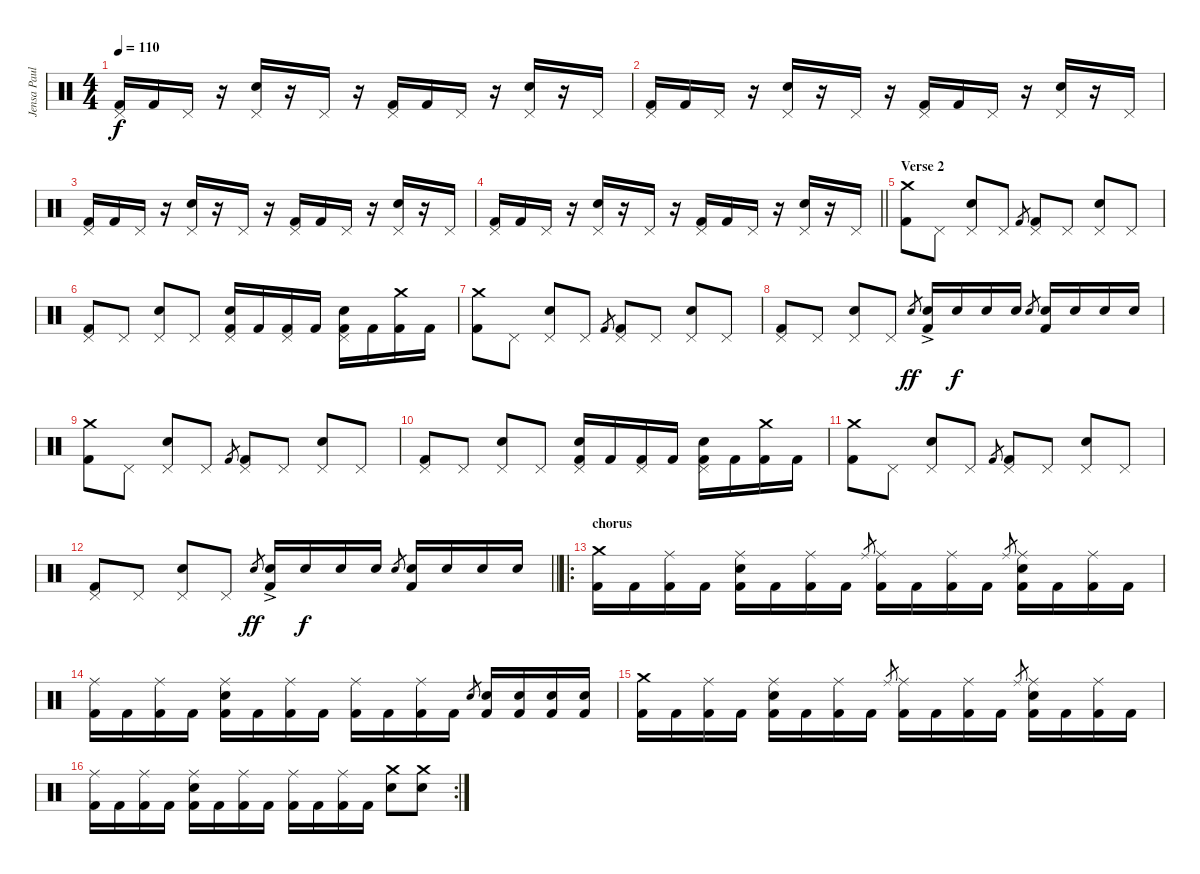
\track ("Jensa Paulsson (Drums)" "Jensa Paul") {instrument percussion}
\staff {score}
\articulation defaults
\ts (4 4)
\tempo 110
\clef neutral
\ks c
("Pedal Hi-Hat (hit)" "Kick (hit) 2").16{dy f} "Kick (hit) 2".16 "Pedal Hi-Hat (hit)".16 r.16 ("Pedal Hi-Hat (hit)" "Electric Snare (hit)").16 r.16 "Pedal Hi-Hat (hit)".16 r.16 ("Pedal Hi-Hat (hit)" "Kick (hit) 2").16 "Kick (hit) 2".16 "Pedal Hi-Hat (hit)".16 r.16 ("Pedal Hi-Hat (hit)" "Electric Snare (hit)").16 r.16 "Pedal Hi-Hat (hit)".16 |
("Pedal Hi-Hat (hit)" "Kick (hit) 2").16 "Kick (hit) 2".16 "Pedal Hi-Hat (hit)".16 r.16 ("Pedal Hi-Hat (hit)" "Electric Snare (hit)").16 r.16 "Pedal Hi-Hat (hit)".16 r.16 ("Pedal Hi-Hat (hit)" "Kick (hit) 2").16 "Kick (hit) 2".16 "Pedal Hi-Hat (hit)".16 r.16 ("Pedal Hi-Hat (hit)" "Electric Snare (hit)").16 r.16 "Pedal Hi-Hat (hit)".16 |
("Pedal Hi-Hat (hit)" "Kick (hit) 2").16 "Kick (hit) 2".16 "Pedal Hi-Hat (hit)".16 r.16 ("Pedal Hi-Hat (hit)" "Electric Snare (hit)").16 r.16 "Pedal Hi-Hat (hit)".16 r.16 ("Pedal Hi-Hat (hit)" "Kick (hit) 2").16 "Kick (hit) 2".16 "Pedal Hi-Hat (hit)".16 r.16 ("Pedal Hi-Hat (hit)" "Electric Snare (hit)").16 r.16 "Pedal Hi-Hat (hit)".16 |
\barLineRight lightlight
("Pedal Hi-Hat (hit)" "Kick (hit) 2").16 "Kick (hit) 2".16 "Pedal Hi-Hat (hit)".16 r.16 ("Pedal Hi-Hat (hit)" "Electric Snare (hit)").16 r.16 "Pedal Hi-Hat (hit)".16 r.16 ("Pedal Hi-Hat (hit)" "Kick (hit) 2").16 "Kick (hit) 2".16 "Pedal Hi-Hat (hit)".16 r.16 ("Pedal Hi-Hat (hit)" "Electric Snare (hit)").16 r.16 "Pedal Hi-Hat (hit)".16 |
\section ("" "Verse 2")
("Crash medium (hit)" "Kick (hit) 2").8 "Pedal Hi-Hat (hit)".8 ("Pedal Hi-Hat (hit)" "Electric Snare (hit)").8 "Pedal Hi-Hat (hit)".8 "Kick (hit) 2".8{gr} ("Pedal Hi-Hat (hit)" "Kick (hit) 2").8 "Pedal Hi-Hat (hit)".8 ("Pedal Hi-Hat (hit)" "Electric Snare (hit)").8 "Pedal Hi-Hat (hit)".8 |
("Pedal Hi-Hat (hit)" "Kick (hit) 2").8 "Pedal Hi-Hat (hit)".8 ("Pedal Hi-Hat (hit)" "Electric Snare (hit)").8 "Pedal Hi-Hat (hit)".8 ("Pedal Hi-Hat (hit)" "Electric Snare (hit)" "Kick (hit) 2").16 "Kick (hit) 2".16 ("Pedal Hi-Hat (hit)" "Kick (hit) 2").16 "Kick (hit) 2".16 ("Pedal Hi-Hat (hit)" "Electric Snare (hit)" "Kick (hit) 2").16 "Kick (hit) 2".16 ("Crash medium (hit)" "Kick (hit) 2").16 "Kick (hit) 2".16 |
("Crash medium (hit)" "Kick (hit) 2").8 "Pedal Hi-Hat (hit)".8 ("Pedal Hi-Hat (hit)" "Electric Snare (hit)").8 "Pedal Hi-Hat (hit)".8 "Kick (hit) 2".8{gr} ("Pedal Hi-Hat (hit)" "Kick (hit) 2").8 "Pedal Hi-Hat (hit)".8 ("Pedal Hi-Hat (hit)" "Electric Snare (hit)").8 "Pedal Hi-Hat (hit)".8 |
("Pedal Hi-Hat (hit)" "Kick (hit) 2").8 "Pedal Hi-Hat (hit)".8 ("Pedal Hi-Hat (hit)" "Electric Snare (hit)").8 "Pedal Hi-Hat (hit)".8 "Electric Snare (hit)".8{gr dy ff} ("Electric Snare (hit)"{ac} "Kick (hit) 2").16 "Electric Snare (hit)".16{dy f} "Electric Snare (hit)".16 "Electric Snare (hit)".16 "Electric Snare (hit)".8{gr} ("Electric Snare (hit)" "Kick (hit) 2").16 "Electric Snare (hit)".16 "Electric Snare (hit)".16 "Electric Snare (hit)".16 |
("Crash medium (hit)" "Kick (hit) 2").8 "Pedal Hi-Hat (hit)".8 ("Pedal Hi-Hat (hit)" "Electric Snare (hit)").8 "Pedal Hi-Hat (hit)".8 "Kick (hit) 2".8{gr} ("Pedal Hi-Hat (hit)" "Kick (hit) 2").8 "Pedal Hi-Hat (hit)".8 ("Pedal Hi-Hat (hit)" "Electric Snare (hit)").8 "Pedal Hi-Hat (hit)".8 |
("Pedal Hi-Hat (hit)" "Kick (hit) 2").8 "Pedal Hi-Hat (hit)".8 ("Pedal Hi-Hat (hit)" "Electric Snare (hit)").8 "Pedal Hi-Hat (hit)".8 ("Pedal Hi-Hat (hit)" "Electric Snare (hit)" "Kick (hit) 2").16 "Kick (hit) 2".16 ("Pedal Hi-Hat (hit)" "Kick (hit) 2").16 "Kick (hit) 2".16 ("Pedal Hi-Hat (hit)" "Electric Snare (hit)" "Kick (hit) 2").16 "Kick (hit) 2".16 ("Crash medium (hit)" "Kick (hit) 2").16 "Kick (hit) 2".16 |
("Crash medium (hit)" "Kick (hit) 2").8 "Pedal Hi-Hat (hit)".8 ("Pedal Hi-Hat (hit)" "Electric Snare (hit)").8 "Pedal Hi-Hat (hit)".8 "Kick (hit) 2".8{gr} ("Pedal Hi-Hat (hit)" "Kick (hit) 2").8 "Pedal Hi-Hat (hit)".8 ("Pedal Hi-Hat (hit)" "Electric Snare (hit)").8 "Pedal Hi-Hat (hit)".8 |
\barLineRight lightlight
("Pedal Hi-Hat (hit)" "Kick (hit) 2").8 "Pedal Hi-Hat (hit)".8 ("Pedal Hi-Hat (hit)" "Electric Snare (hit)").8 "Pedal Hi-Hat (hit)".8 "Electric Snare (hit)".8{gr dy ff} ("Electric Snare (hit)"{ac} "Kick (hit) 2").16 "Electric Snare (hit)".16{dy f} "Electric Snare (hit)".16 "Electric Snare (hit)".16 "Electric Snare (hit)".8{gr} ("Electric Snare (hit)" "Kick (hit) 2").16 "Electric Snare (hit)".16 "Electric Snare (hit)".16 "Electric Snare (hit)".16 |
\ro
\section ("" "chorus")
("Crash medium (hit)" "Kick (hit) 2").16 "Kick (hit) 2".16 ("Ride (middle)" "Kick (hit) 2").16 "Kick (hit) 2".16 ("Ride (middle)" "Electric Snare (hit)" "Kick (hit) 2").16 "Kick (hit) 2".16 ("Ride (middle)" "Kick (hit) 2").16 "Kick (hit) 2".16 "Ride (middle)".8{gr} ("Ride (middle)" "Kick (hit) 2").16 "Kick (hit) 2".16 ("Ride (middle)" "Kick (hit) 2").16 "Kick (hit) 2".16 "Ride (middle)".8{gr} ("Ride (middle)" "Electric Snare (hit)" "Kick (hit) 2").16 "Kick (hit) 2".16 ("Ride (middle)" "Kick (hit) 2").16 "Kick (hit) 2".16 |
("Ride (middle)" "Kick (hit) 2").16 "Kick (hit) 2".16 ("Ride (middle)" "Kick (hit) 2").16 "Kick (hit) 2".16 ("Ride (middle)" "Electric Snare (hit)" "Kick (hit) 2").16 "Kick (hit) 2".16 ("Ride (middle)" "Kick (hit) 2").16 "Kick (hit) 2".16 ("Ride (middle)" "Kick (hit) 2").16 "Kick (hit) 2".16 ("Ride (middle)" "Kick (hit) 2").16 "Kick (hit) 2".16 "Electric Snare (hit)".8{gr} ("Electric Snare (hit)" "Kick (hit) 2").16 ("Electric Snare (hit)" "Kick (hit) 2").16 ("Electric Snare (hit)" "Kick (hit) 2").16 ("Electric Snare (hit)" "Kick (hit) 2").16 |
("Crash medium (hit)" "Kick (hit) 2").16 "Kick (hit) 2".16 ("Ride (middle)" "Kick (hit) 2").16 "Kick (hit) 2".16 ("Ride (middle)" "Electric Snare (hit)" "Kick (hit) 2").16 "Kick (hit) 2".16 ("Ride (middle)" "Kick (hit) 2").16 "Kick (hit) 2".16 "Ride (middle)".8{gr} ("Ride (middle)" "Kick (hit) 2").16 "Kick (hit) 2".16 ("Ride (middle)" "Kick (hit) 2").16 "Kick (hit) 2".16 "Ride (middle)".8{gr} ("Ride (middle)" "Electric Snare (hit)" "Kick (hit) 2").16 "Kick (hit) 2".16 ("Ride (middle)" "Kick (hit) 2").16 "Kick (hit) 2".16 |
\rc 2
("Ride (middle)" "Kick (hit) 2").16 "Kick (hit) 2".16 ("Ride (middle)" "Kick (hit) 2").16 "Kick (hit) 2".16 ("Ride (middle)" "Electric Snare (hit)" "Kick (hit) 2").16 "Kick (hit) 2".16 ("Ride (middle)" "Kick (hit) 2").16 "Kick (hit) 2".16 ("Ride (middle)" "Kick (hit) 2").16 "Kick (hit) 2".16 ("Ride (middle)" "Kick (hit) 2").16 "Kick (hit) 2".16 ("Crash medium (hit)" "Electric Snare (hit)").8 ("Crash medium (hit)" "Electric Snare (hit)").8
